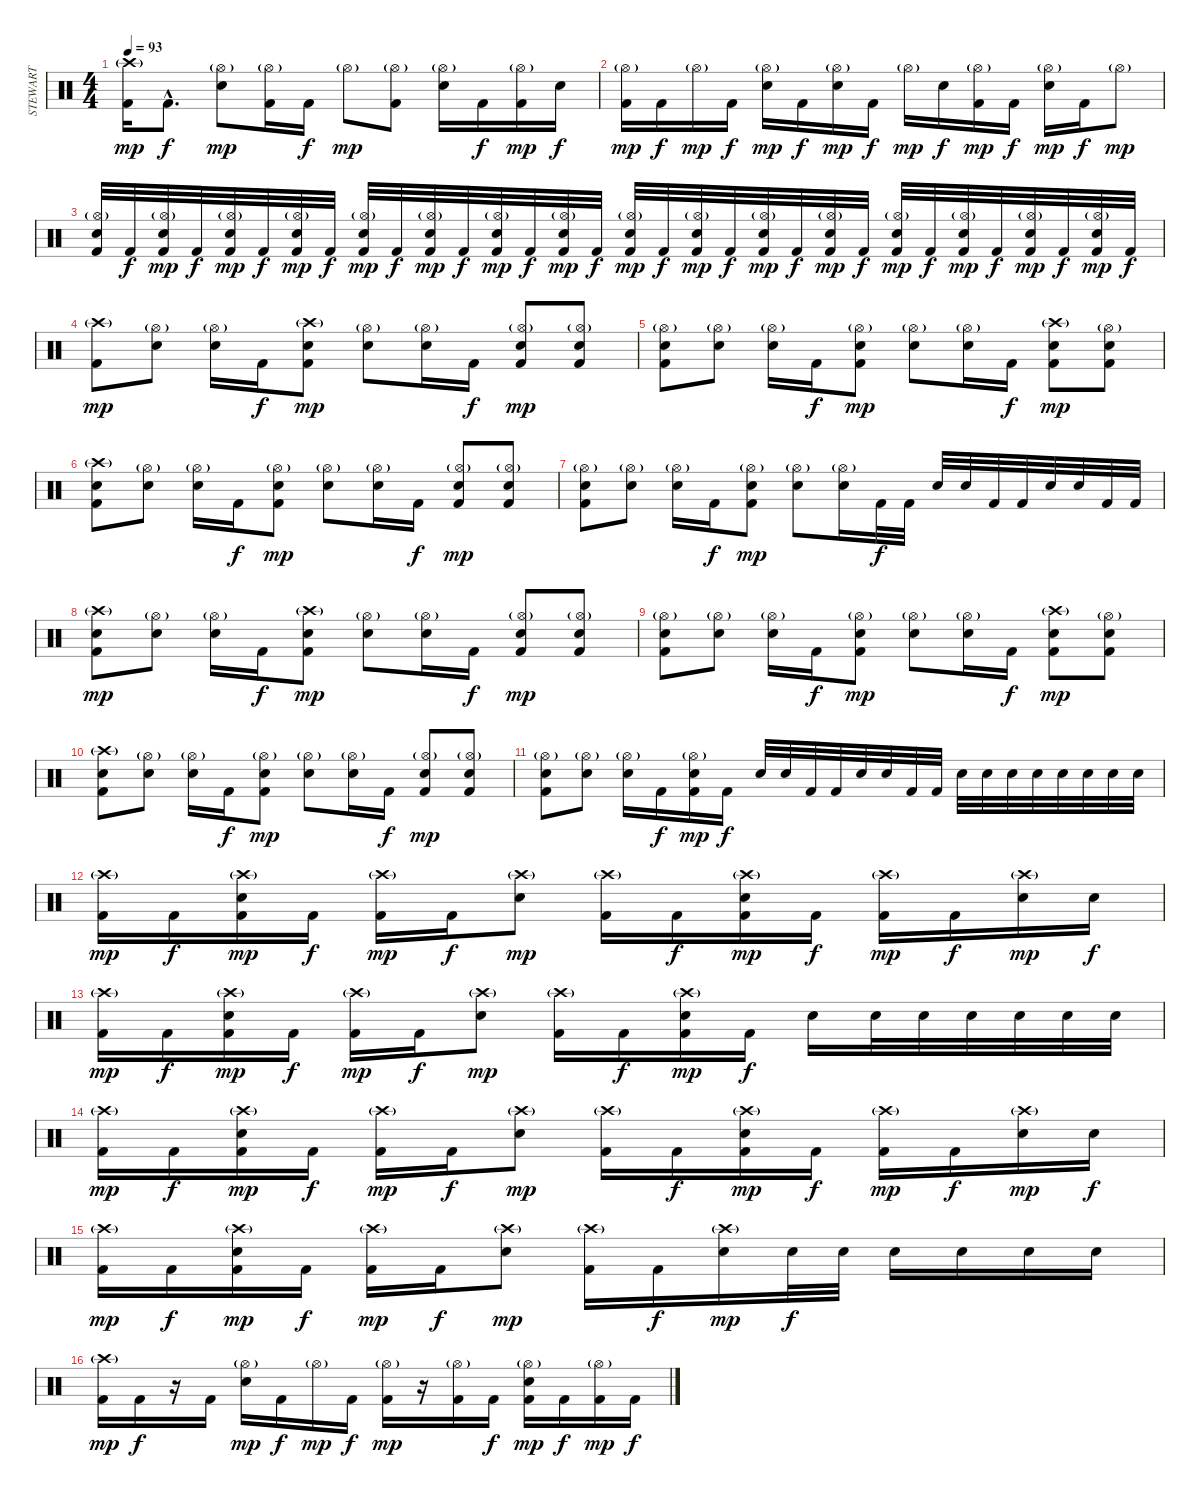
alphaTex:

\track ("STEWART" "STEWART") {instrument percussion}
\staff {score}
\articulation defaults
\ts (4 4)
\tempo 93
\clef neutral
\ks c
("Crash high (hit)"{g} "Kick (hit) 2").16{dy mp} "Kick (hit) 2"{hac}.8{d dy f} ("Hi-Hat (open)"{g} "Electric Snare (hit)").8{dy mp} ("Hi-Hat (open)"{g} "Kick (hit) 2").16 "Kick (hit) 2".16{dy f} "Hi-Hat (open)"{g}.8{dy mp} ("Hi-Hat (open)"{g} "Kick (hit) 2").8 ("Hi-Hat (open)"{g} "Electric Snare (hit)").16 "Kick (hit) 2".16{dy f} ("Hi-Hat (open)"{g} "Kick (hit) 2").16{dy mp} "Electric Snare (hit)".16{dy f} |
("Hi-Hat (open)"{g} "Kick (hit) 2").16{dy mp} "Kick (hit) 2".16{dy f} "Hi-Hat (open)"{g}.16{dy mp} "Kick (hit) 2".16{dy f} ("Hi-Hat (open)"{g} "Electric Snare (hit)").16{dy mp} "Kick (hit) 2".16{dy f} ("Hi-Hat (open)"{g} "Electric Snare (hit)").16{dy mp} "Kick (hit) 2".16{dy f} "Hi-Hat (open)"{g}.16{dy mp} "Electric Snare (hit)".16{dy f} ("Hi-Hat (open)"{g} "Kick (hit) 2").16{dy mp} "Kick (hit) 2".16{dy f} ("Hi-Hat (open)"{g} "Electric Snare (hit)").16{dy mp} "Kick (hit) 2".16{dy f} "Hi-Hat (open)"{g}.8{dy mp} |
("Hi-Hat (open)"{g} "Electric Snare (hit)" "Kick (hit) 2").32 "Kick (hit) 2".32{dy f} ("Hi-Hat (open)"{g} "Electric Snare (hit)" "Kick (hit) 2").32{dy mp} "Kick (hit) 2".32{dy f} ("Hi-Hat (open)"{g} "Electric Snare (hit)" "Kick (hit) 2").32{dy mp} "Kick (hit) 2".32{dy f} ("Hi-Hat (open)"{g} "Electric Snare (hit)" "Kick (hit) 2").32{dy mp} "Kick (hit) 2".32{dy f} ("Hi-Hat (open)"{g} "Electric Snare (hit)" "Kick (hit) 2").32{dy mp} "Kick (hit) 2".32{dy f} ("Hi-Hat (open)"{g} "Electric Snare (hit)" "Kick (hit) 2").32{dy mp} "Kick (hit) 2".32{dy f} ("Hi-Hat (open)"{g} "Electric Snare (hit)" "Kick (hit) 2").32{dy mp} "Kick (hit) 2".32{dy f} ("Hi-Hat (open)"{g} "Electric Snare (hit)" "Kick (hit) 2").32{dy mp} "Kick (hit) 2".32{dy f} ("Hi-Hat (open)"{g} "Electric Snare (hit)" "Kick (hit) 2").32{dy mp} "Kick (hit) 2".32{dy f} ("Hi-Hat (open)"{g} "Electric Snare (hit)" "Kick (hit) 2").32{dy mp} "Kick (hit) 2".32{dy f} ("Hi-Hat (open)"{g} "Electric Snare (hit)" "Kick (hit) 2").32{dy mp} "Kick (hit) 2".32{dy f} ("Hi-Hat (open)"{g} "Electric Snare (hit)" "Kick (hit) 2").32{dy mp} "Kick (hit) 2".32{dy f} ("Hi-Hat (open)"{g} "Electric Snare (hit)" "Kick (hit) 2").32{dy mp} "Kick (hit) 2".32{dy f} ("Hi-Hat (open)"{g} "Electric Snare (hit)" "Kick (hit) 2").32{dy mp} "Kick (hit) 2".32{dy f} ("Hi-Hat (open)"{g} "Electric Snare (hit)" "Kick (hit) 2").32{dy mp} "Kick (hit) 2".32{dy f} ("Hi-Hat (open)"{g} "Electric Snare (hit)" "Kick (hit) 2").32{dy mp} "Kick (hit) 2".32{dy f} |
("Crash high (hit)"{g} "Kick (hit) 2").8{dy mp} ("Hi-Hat (open)"{g} "Electric Snare (hit)").8 ("Hi-Hat (open)"{g} "Electric Snare (hit)").16 "Kick (hit) 2".16{dy f} ("Crash high (hit)"{g} "Electric Snare (hit)" "Kick (hit) 2").8{dy mp} ("Hi-Hat (open)"{g} "Electric Snare (hit)").8 ("Hi-Hat (open)"{g} "Electric Snare (hit)").16 "Kick (hit) 2".16{dy f} ("Hi-Hat (open)"{g} "Electric Snare (hit)" "Kick (hit) 2").8{dy mp} ("Hi-Hat (open)"{g} "Electric Snare (hit)" "Kick (hit) 2").8 |
("Hi-Hat (open)"{g} "Electric Snare (hit)" "Kick (hit) 2").8 ("Hi-Hat (open)"{g} "Electric Snare (hit)").8 ("Hi-Hat (open)"{g} "Electric Snare (hit)").16 "Kick (hit) 2".16{dy f} ("Hi-Hat (open)"{g} "Electric Snare (hit)" "Kick (hit) 2").8{dy mp} ("Hi-Hat (open)"{g} "Electric Snare (hit)").8 ("Hi-Hat (open)"{g} "Electric Snare (hit)").16 "Kick (hit) 2".16{dy f} ("Crash high (hit)"{g} "Electric Snare (hit)" "Kick (hit) 2").8{dy mp} ("Hi-Hat (open)"{g} "Electric Snare (hit)" "Kick (hit) 2").8 |
("Crash high (hit)"{g} "Electric Snare (hit)" "Kick (hit) 2").8 ("Hi-Hat (open)"{g} "Electric Snare (hit)").8 ("Hi-Hat (open)"{g} "Electric Snare (hit)").16 "Kick (hit) 2".16{dy f} ("Hi-Hat (open)"{g} "Electric Snare (hit)" "Kick (hit) 2").8{dy mp} ("Hi-Hat (open)"{g} "Electric Snare (hit)").8 ("Hi-Hat (open)"{g} "Electric Snare (hit)").16 "Kick (hit) 2".16{dy f} ("Hi-Hat (open)"{g} "Electric Snare (hit)" "Kick (hit) 2").8{dy mp} ("Hi-Hat (open)"{g} "Electric Snare (hit)" "Kick (hit) 2").8 |
("Hi-Hat (open)"{g} "Electric Snare (hit)" "Kick (hit) 2").8 ("Hi-Hat (open)"{g} "Electric Snare (hit)").8 ("Hi-Hat (open)"{g} "Electric Snare (hit)").16 "Kick (hit) 2".16{dy f} ("Hi-Hat (open)"{g} "Electric Snare (hit)" "Kick (hit) 2").8{dy mp} ("Hi-Hat (open)"{g} "Electric Snare (hit)").8 ("Hi-Hat (open)"{g} "Electric Snare (hit)").16 "Kick (hit) 2".32{dy f} "Kick (hit) 2".32 "Electric Snare (hit)".32 "Electric Snare (hit)".32 "Kick (hit) 2".32 "Kick (hit) 2".32 "Electric Snare (hit)".32 "Electric Snare (hit)".32 "Kick (hit) 2".32 "Kick (hit) 2".32 |
("Crash high (hit)"{g} "Electric Snare (hit)" "Kick (hit) 2").8{dy mp} ("Hi-Hat (open)"{g} "Electric Snare (hit)").8 ("Hi-Hat (open)"{g} "Electric Snare (hit)").16 "Kick (hit) 2".16{dy f} ("Crash high (hit)"{g} "Electric Snare (hit)" "Kick (hit) 2").8{dy mp} ("Hi-Hat (open)"{g} "Electric Snare (hit)").8 ("Hi-Hat (open)"{g} "Electric Snare (hit)").16 "Kick (hit) 2".16{dy f} ("Hi-Hat (open)"{g} "Electric Snare (hit)" "Kick (hit) 2").8{dy mp} ("Hi-Hat (open)"{g} "Electric Snare (hit)" "Kick (hit) 2").8 |
("Hi-Hat (open)"{g} "Electric Snare (hit)" "Kick (hit) 2").8 ("Hi-Hat (open)"{g} "Electric Snare (hit)").8 ("Hi-Hat (open)"{g} "Electric Snare (hit)").16 "Kick (hit) 2".16{dy f} ("Hi-Hat (open)"{g} "Electric Snare (hit)" "Kick (hit) 2").8{dy mp} ("Hi-Hat (open)"{g} "Electric Snare (hit)").8 ("Hi-Hat (open)"{g} "Electric Snare (hit)").16 "Kick (hit) 2".16{dy f} ("Crash high (hit)"{g} "Electric Snare (hit)" "Kick (hit) 2").8{dy mp} ("Hi-Hat (open)"{g} "Electric Snare (hit)" "Kick (hit) 2").8 |
("Crash high (hit)"{g} "Electric Snare (hit)" "Kick (hit) 2").8 ("Hi-Hat (open)"{g} "Electric Snare (hit)").8 ("Hi-Hat (open)"{g} "Electric Snare (hit)").16 "Kick (hit) 2".16{dy f} ("Hi-Hat (open)"{g} "Electric Snare (hit)" "Kick (hit) 2").8{dy mp} ("Hi-Hat (open)"{g} "Electric Snare (hit)").8 ("Hi-Hat (open)"{g} "Electric Snare (hit)").16 "Kick (hit) 2".16{dy f} ("Hi-Hat (open)"{g} "Electric Snare (hit)" "Kick (hit) 2").8{dy mp} ("Hi-Hat (open)"{g} "Electric Snare (hit)" "Kick (hit) 2").8 |
("Hi-Hat (open)"{g} "Electric Snare (hit)" "Kick (hit) 2").8 ("Hi-Hat (open)"{g} "Electric Snare (hit)").8 ("Hi-Hat (open)"{g} "Electric Snare (hit)").16 "Kick (hit) 2".16{dy f} ("Hi-Hat (open)"{g} "Electric Snare (hit)" "Kick (hit) 2").16{dy mp} "Kick (hit) 2".16{dy f} "Electric Snare (hit)".32 "Electric Snare (hit)".32 "Kick (hit) 2".32 "Kick (hit) 2".32 "Electric Snare (hit)".32 "Electric Snare (hit)".32 "Kick (hit) 2".32 "Kick (hit) 2".32 "Electric Snare (hit)".32 "Electric Snare (hit)".32 "Electric Snare (hit)".32 "Electric Snare (hit)".32 "Electric Snare (hit)".32 "Electric Snare (hit)".32 "Electric Snare (hit)".32 "Electric Snare (hit)".32 |
("Crash high (hit)"{g} "Kick (hit) 2").16{dy mp} "Kick (hit) 2".16{dy f} ("Crash high (hit)"{g} "Electric Snare (hit)" "Kick (hit) 2").16{dy mp} "Kick (hit) 2".16{dy f} ("Crash high (hit)"{g} "Kick (hit) 2").16{dy mp} "Kick (hit) 2".16{dy f} ("Crash high (hit)"{g} "Electric Snare (hit)").8{dy mp} ("Crash high (hit)"{g} "Kick (hit) 2").16 "Kick (hit) 2".16{dy f} ("Crash high (hit)"{g} "Electric Snare (hit)" "Kick (hit) 2").16{dy mp} "Kick (hit) 2".16{dy f} ("Crash high (hit)"{g} "Kick (hit) 2").16{dy mp} "Kick (hit) 2".16{dy f} ("Crash high (hit)"{g} "Electric Snare (hit)").16{dy mp} "Electric Snare (hit)".16{dy f} |
("Crash high (hit)"{g} "Kick (hit) 2").16{dy mp} "Kick (hit) 2".16{dy f} ("Crash high (hit)"{g} "Electric Snare (hit)" "Kick (hit) 2").16{dy mp} "Kick (hit) 2".16{dy f} ("Crash high (hit)"{g} "Kick (hit) 2").16{dy mp} "Kick (hit) 2".16{dy f} ("Crash high (hit)"{g} "Electric Snare (hit)").8{dy mp} ("Crash high (hit)"{g} "Kick (hit) 2").16 "Kick (hit) 2".16{dy f} ("Crash high (hit)"{g} "Electric Snare (hit)" "Kick (hit) 2").16{dy mp} "Kick (hit) 2".16{dy f} "Electric Snare (hit)".16 "Electric Snare (hit)".32 "Electric Snare (hit)".32 "Electric Snare (hit)".32 "Electric Snare (hit)".32 "Electric Snare (hit)".32 "Electric Snare (hit)".32 |
("Crash high (hit)"{g} "Kick (hit) 2").16{dy mp} "Kick (hit) 2".16{dy f} ("Crash high (hit)"{g} "Electric Snare (hit)" "Kick (hit) 2").16{dy mp} "Kick (hit) 2".16{dy f} ("Crash high (hit)"{g} "Kick (hit) 2").16{dy mp} "Kick (hit) 2".16{dy f} ("Crash high (hit)"{g} "Electric Snare (hit)").8{dy mp} ("Crash high (hit)"{g} "Kick (hit) 2").16 "Kick (hit) 2".16{dy f} ("Crash high (hit)"{g} "Electric Snare (hit)" "Kick (hit) 2").16{dy mp} "Kick (hit) 2".16{dy f} ("Crash high (hit)"{g} "Kick (hit) 2").16{dy mp} "Kick (hit) 2".16{dy f} ("Crash high (hit)"{g} "Electric Snare (hit)").16{dy mp} "Electric Snare (hit)".16{dy f} |
("Crash high (hit)"{g} "Kick (hit) 2").16{dy mp} "Kick (hit) 2".16{dy f} ("Crash high (hit)"{g} "Electric Snare (hit)" "Kick (hit) 2").16{dy mp} "Kick (hit) 2".16{dy f} ("Crash high (hit)"{g} "Kick (hit) 2").16{dy mp} "Kick (hit) 2".16{dy f} ("Crash high (hit)"{g} "Electric Snare (hit)").8{dy mp} ("Crash high (hit)"{g} "Kick (hit) 2").16 "Kick (hit) 2".16{dy f} ("Crash high (hit)"{g} "Electric Snare (hit)").16{dy mp} "Electric Snare (hit)".32{dy f} "Electric Snare (hit)".32 "Electric Snare (hit)".16 "Electric Snare (hit)".16 "Electric Snare (hit)".16 "Electric Snare (hit)".16 |
("Crash high (hit)"{g} "Kick (hit) 2").16{dy mp} "Kick (hit) 2".16{dy f} r.16 "Kick (hit) 2".16 ("Hi-Hat (open)"{g} "Electric Snare (hit)").16{dy mp} "Kick (hit) 2".16{dy f} "Hi-Hat (open)"{g}.16{dy mp} "Kick (hit) 2".16{dy f} ("Hi-Hat (open)"{g} "Kick (hit) 2").16{dy mp} r.16 ("Hi-Hat (open)"{g} "Kick (hit) 2").16 "Kick (hit) 2".16{dy f} ("Hi-Hat (open)"{g} "Electric Snare (hit)" "Kick (hit) 2").16{dy mp} "Kick (hit) 2".16{dy f} ("Hi-Hat (open)"{g} "Kick (hit) 2").16{dy mp} "Kick (hit) 2".16{dy f}
